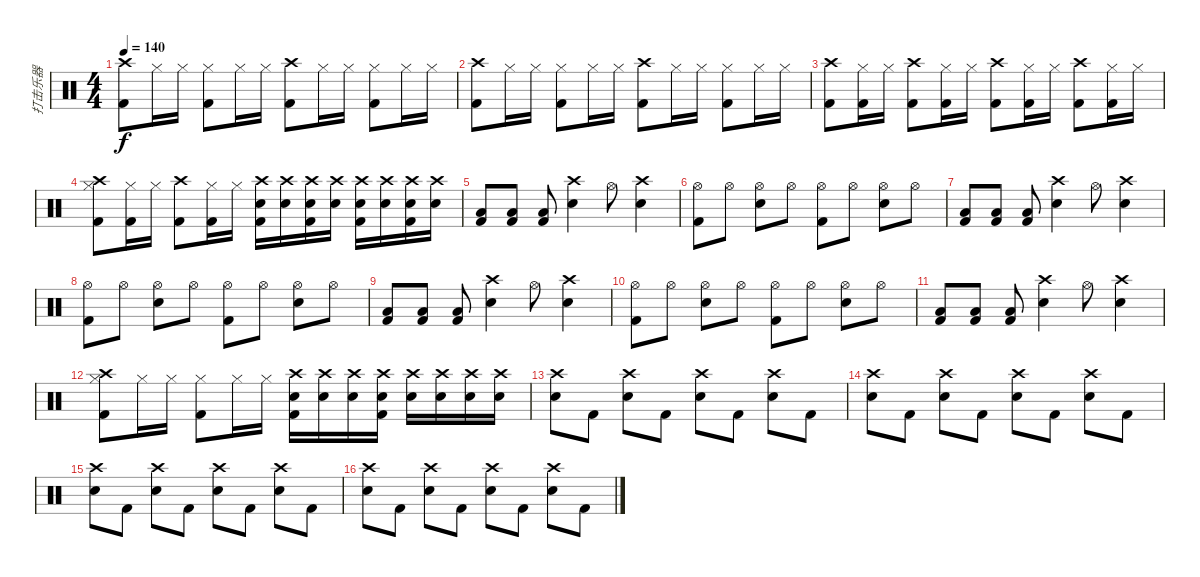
\track ("打击乐器" "打击乐器") {instrument percussion}
\staff {score}
\articulation defaults
\ts (4 4)
\tempo 140
\clef neutral
\ks c
("Crash high (hit)" "Kick (hit) 2").8{dy f} "Hi-Hat (closed)".16 "Hi-Hat (closed)".16 ("Hi-Hat (closed)" "Kick (hit) 2").8 "Hi-Hat (closed)".16 "Hi-Hat (closed)".16 ("Crash high (hit)" "Kick (hit) 2").8 "Hi-Hat (closed)".16 "Hi-Hat (closed)".16 ("Hi-Hat (closed)" "Kick (hit) 2").8 "Hi-Hat (closed)".16 "Hi-Hat (closed)".16 |
("Crash high (hit)" "Kick (hit) 2").8 "Hi-Hat (closed)".16 "Hi-Hat (closed)".16 ("Hi-Hat (closed)" "Kick (hit) 2").8 "Hi-Hat (closed)".16 "Hi-Hat (closed)".16 ("Crash high (hit)" "Kick (hit) 2").8 "Hi-Hat (closed)".16 "Hi-Hat (closed)".16 ("Hi-Hat (closed)" "Kick (hit) 2").8 "Hi-Hat (closed)".16 "Hi-Hat (closed)".16 |
("Crash high (hit)" "Kick (hit) 2").8 ("Hi-Hat (closed)" "Kick (hit) 2").16 "Hi-Hat (closed)".16 ("Crash high (hit)" "Kick (hit) 2").8 ("Hi-Hat (closed)" "Kick (hit) 2").16 "Hi-Hat (closed)".16 ("Crash high (hit)" "Kick (hit) 2").8 ("Hi-Hat (closed)" "Kick (hit) 2").16 "Hi-Hat (closed)".16 ("Crash high (hit)" "Kick (hit) 2").8 ("Hi-Hat (closed)" "Kick (hit) 2").16 "Hi-Hat (closed)".16 |
("Crash high (hit)" "Hi-Hat (closed)" "Kick (hit) 2").8 ("Hi-Hat (closed)" "Kick (hit) 2").16 "Hi-Hat (closed)".16 ("Crash high (hit)" "Kick (hit) 2").8 ("Hi-Hat (closed)" "Kick (hit) 2").16 "Hi-Hat (closed)".16 ("Crash high (hit)" "Snare (hit) 2" "Kick (hit) 2").16 ("Crash high (hit)" "Snare (hit) 2").16 ("Crash high (hit)" "Snare (hit) 2" "Kick (hit) 2").16 ("Crash high (hit)" "Snare (hit) 2").16 ("Crash high (hit)" "Snare (hit) 2" "Kick (hit) 2").16 ("Crash high (hit)" "Snare (hit) 2").16 ("Crash high (hit)" "Snare (hit) 2" "Kick (hit) 2").16 ("Crash high (hit)" "Snare (hit) 2").16 |
("Low Floor Tom (hit)" "Kick (hit) 2").8 ("Low Floor Tom (hit)" "Kick (hit) 2").8 ("Low Floor Tom (hit)" "Kick (hit) 2").8 ("Crash high (hit)" "Snare (hit) 2").4 "Hi-Hat (open)".8 ("Crash high (hit)" "Snare (hit) 2").4 |
("Hi-Hat (open)" "Kick (hit) 2").8 "Hi-Hat (open)".8 ("Hi-Hat (open)" "Snare (hit) 2").8 "Hi-Hat (open)".8 ("Hi-Hat (open)" "Kick (hit) 2").8 "Hi-Hat (open)".8 ("Hi-Hat (open)" "Snare (hit) 2").8 "Hi-Hat (open)".8 |
("Low Floor Tom (hit)" "Kick (hit) 2").8 ("Low Floor Tom (hit)" "Kick (hit) 2").8 ("Low Floor Tom (hit)" "Kick (hit) 2").8 ("Crash high (hit)" "Snare (hit) 2").4 "Hi-Hat (open)".8 ("Crash high (hit)" "Snare (hit) 2").4 |
("Hi-Hat (open)" "Kick (hit) 2").8 "Hi-Hat (open)".8 ("Hi-Hat (open)" "Snare (hit) 2").8 "Hi-Hat (open)".8 ("Hi-Hat (open)" "Kick (hit) 2").8 "Hi-Hat (open)".8 ("Hi-Hat (open)" "Snare (hit) 2").8 "Hi-Hat (open)".8 |
("Low Floor Tom (hit)" "Kick (hit) 2").8 ("Low Floor Tom (hit)" "Kick (hit) 2").8 ("Low Floor Tom (hit)" "Kick (hit) 2").8 ("Crash high (hit)" "Snare (hit) 2").4 "Hi-Hat (open)".8 ("Crash high (hit)" "Snare (hit) 2").4 |
("Hi-Hat (open)" "Kick (hit) 2").8 "Hi-Hat (open)".8 ("Hi-Hat (open)" "Snare (hit) 2").8 "Hi-Hat (open)".8 ("Hi-Hat (open)" "Kick (hit) 2").8 "Hi-Hat (open)".8 ("Hi-Hat (open)" "Snare (hit) 2").8 "Hi-Hat (open)".8 |
("Low Floor Tom (hit)" "Kick (hit) 2").8 ("Low Floor Tom (hit)" "Kick (hit) 2").8 ("Low Floor Tom (hit)" "Kick (hit) 2").8 ("Crash high (hit)" "Snare (hit) 2").4 "Hi-Hat (open)".8 ("Crash high (hit)" "Snare (hit) 2").4 |
("Crash high (hit)" "Hi-Hat (closed)" "Kick (hit) 2").8 "Hi-Hat (closed)".16 "Hi-Hat (closed)".16 ("Hi-Hat (closed)" "Kick (hit) 2").8 "Hi-Hat (closed)".16 "Hi-Hat (closed)".16 ("Crash high (hit)" "Snare (hit) 2" "Kick (hit) 2").16 ("Crash high (hit)" "Snare (hit) 2").16 ("Crash high (hit)" "Snare (hit) 2").16 ("Crash high (hit)" "Snare (hit) 2" "Kick (hit) 2").16 ("Crash high (hit)" "Snare (hit) 2").16 ("Crash high (hit)" "Snare (hit) 2").16 ("Crash high (hit)" "Snare (hit) 2").16 ("Crash high (hit)" "Snare (hit) 2").16 |
("Crash high (hit)" "Snare (hit) 2").8 "Kick (hit) 2".8 ("Crash high (hit)" "Snare (hit) 2").8 "Kick (hit) 2".8 ("Crash high (hit)" "Snare (hit) 2").8 "Kick (hit) 2".8 ("Crash high (hit)" "Snare (hit) 2").8 "Kick (hit) 2".8 |
("Crash high (hit)" "Snare (hit) 2").8 "Kick (hit) 2".8 ("Crash high (hit)" "Snare (hit) 2").8 "Kick (hit) 2".8 ("Crash high (hit)" "Snare (hit) 2").8 "Kick (hit) 2".8 ("Crash high (hit)" "Snare (hit) 2").8 "Kick (hit) 2".8 |
("Crash high (hit)" "Snare (hit) 2").8 "Kick (hit) 2".8 ("Crash high (hit)" "Snare (hit) 2").8 "Kick (hit) 2".8 ("Crash high (hit)" "Snare (hit) 2").8 "Kick (hit) 2".8 ("Crash high (hit)" "Snare (hit) 2").8 "Kick (hit) 2".8 |
("Crash high (hit)" "Snare (hit) 2").8 "Kick (hit) 2".8 ("Crash high (hit)" "Snare (hit) 2").8 "Kick (hit) 2".8 ("Crash high (hit)" "Snare (hit) 2").8 "Kick (hit) 2".8 ("Crash high (hit)" "Snare (hit) 2").8 "Kick (hit) 2".8
